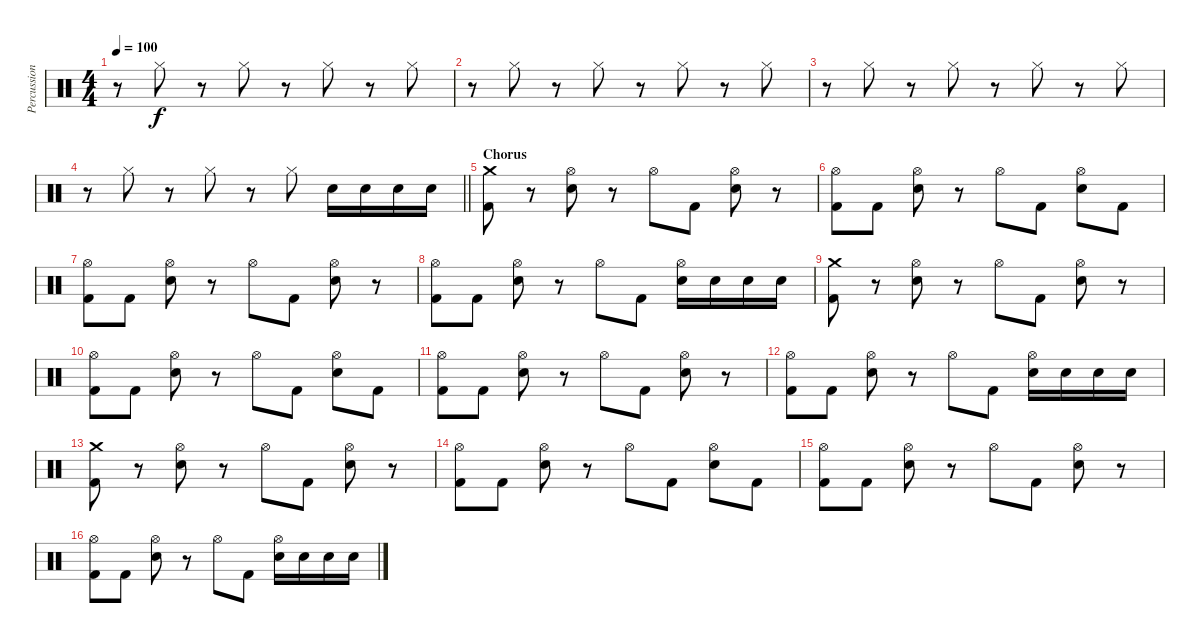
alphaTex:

\track ("Percussion" "Percussion") {instrument percussion}
\staff {score}
\articulation defaults
\ts (4 4)
\tempo 100
\clef neutral
\ks c
r.8{dy f} "Hi-Hat (closed)".8 r.8 "Hi-Hat (closed)".8 r.8 "Hi-Hat (closed)".8 r.8 "Hi-Hat (closed)".8 |
r.8 "Hi-Hat (closed)".8 r.8 "Hi-Hat (closed)".8 r.8 "Hi-Hat (closed)".8 r.8 "Hi-Hat (closed)".8 |
r.8 "Hi-Hat (closed)".8 r.8 "Hi-Hat (closed)".8 r.8 "Hi-Hat (closed)".8 r.8 "Hi-Hat (closed)".8 |
\barLineRight lightlight
r.8 "Hi-Hat (closed)".8 r.8 "Hi-Hat (closed)".8 r.8 "Hi-Hat (closed)".8 "Snare (hit) 2".16 "Snare (hit) 2".16 "Snare (hit) 2".16 "Snare (hit) 2".16 |
\section ("" "Chorus")
("Crash medium (hit)" "Kick (hit) 2").8 r.8 ("Hi-Hat (open)" "Snare (hit) 2").8 r.8 "Hi-Hat (open)".8 "Kick (hit) 2".8 ("Hi-Hat (open)" "Snare (hit) 2").8 r.8 |
("Hi-Hat (open)" "Kick (hit) 2").8 "Kick (hit) 2".8 ("Hi-Hat (open)" "Snare (hit) 2").8 r.8 "Hi-Hat (open)".8 "Kick (hit) 2".8 ("Hi-Hat (open)" "Snare (hit) 2").8 "Kick (hit) 2".8 |
("Hi-Hat (open)" "Kick (hit) 2").8 "Kick (hit) 2".8 ("Hi-Hat (open)" "Snare (hit) 2").8 r.8 "Hi-Hat (open)".8 "Kick (hit) 2".8 ("Hi-Hat (open)" "Snare (hit) 2").8 r.8 |
("Hi-Hat (open)" "Kick (hit) 2").8 "Kick (hit) 2".8 ("Hi-Hat (open)" "Snare (hit) 2").8 r.8 "Hi-Hat (open)".8 "Kick (hit) 2".8 ("Hi-Hat (open)" "Snare (hit) 2").16 "Snare (hit) 2".16 "Snare (hit) 2".16 "Snare (hit) 2".16 |
("Crash medium (hit)" "Kick (hit) 2").8 r.8 ("Hi-Hat (open)" "Snare (hit) 2").8 r.8 "Hi-Hat (open)".8 "Kick (hit) 2".8 ("Hi-Hat (open)" "Snare (hit) 2").8 r.8 |
("Hi-Hat (open)" "Kick (hit) 2").8 "Kick (hit) 2".8 ("Hi-Hat (open)" "Snare (hit) 2").8 r.8 "Hi-Hat (open)".8 "Kick (hit) 2".8 ("Hi-Hat (open)" "Snare (hit) 2").8 "Kick (hit) 2".8 |
("Hi-Hat (open)" "Kick (hit) 2").8 "Kick (hit) 2".8 ("Hi-Hat (open)" "Snare (hit) 2").8 r.8 "Hi-Hat (open)".8 "Kick (hit) 2".8 ("Hi-Hat (open)" "Snare (hit) 2").8 r.8 |
("Hi-Hat (open)" "Kick (hit) 2").8 "Kick (hit) 2".8 ("Hi-Hat (open)" "Snare (hit) 2").8 r.8 "Hi-Hat (open)".8 "Kick (hit) 2".8 ("Hi-Hat (open)" "Snare (hit) 2").16 "Snare (hit) 2".16 "Snare (hit) 2".16 "Snare (hit) 2".16 |
("Crash medium (hit)" "Kick (hit) 2").8 r.8 ("Hi-Hat (open)" "Snare (hit) 2").8 r.8 "Hi-Hat (open)".8 "Kick (hit) 2".8 ("Hi-Hat (open)" "Snare (hit) 2").8 r.8 |
("Hi-Hat (open)" "Kick (hit) 2").8 "Kick (hit) 2".8 ("Hi-Hat (open)" "Snare (hit) 2").8 r.8 "Hi-Hat (open)".8 "Kick (hit) 2".8 ("Hi-Hat (open)" "Snare (hit) 2").8 "Kick (hit) 2".8 |
("Hi-Hat (open)" "Kick (hit) 2").8 "Kick (hit) 2".8 ("Hi-Hat (open)" "Snare (hit) 2").8 r.8 "Hi-Hat (open)".8 "Kick (hit) 2".8 ("Hi-Hat (open)" "Snare (hit) 2").8 r.8 |
("Hi-Hat (open)" "Kick (hit) 2").8 "Kick (hit) 2".8 ("Hi-Hat (open)" "Snare (hit) 2").8 r.8 "Hi-Hat (open)".8 "Kick (hit) 2".8 ("Hi-Hat (open)" "Snare (hit) 2").16 "Snare (hit) 2".16 "Snare (hit) 2".16 "Snare (hit) 2".16
